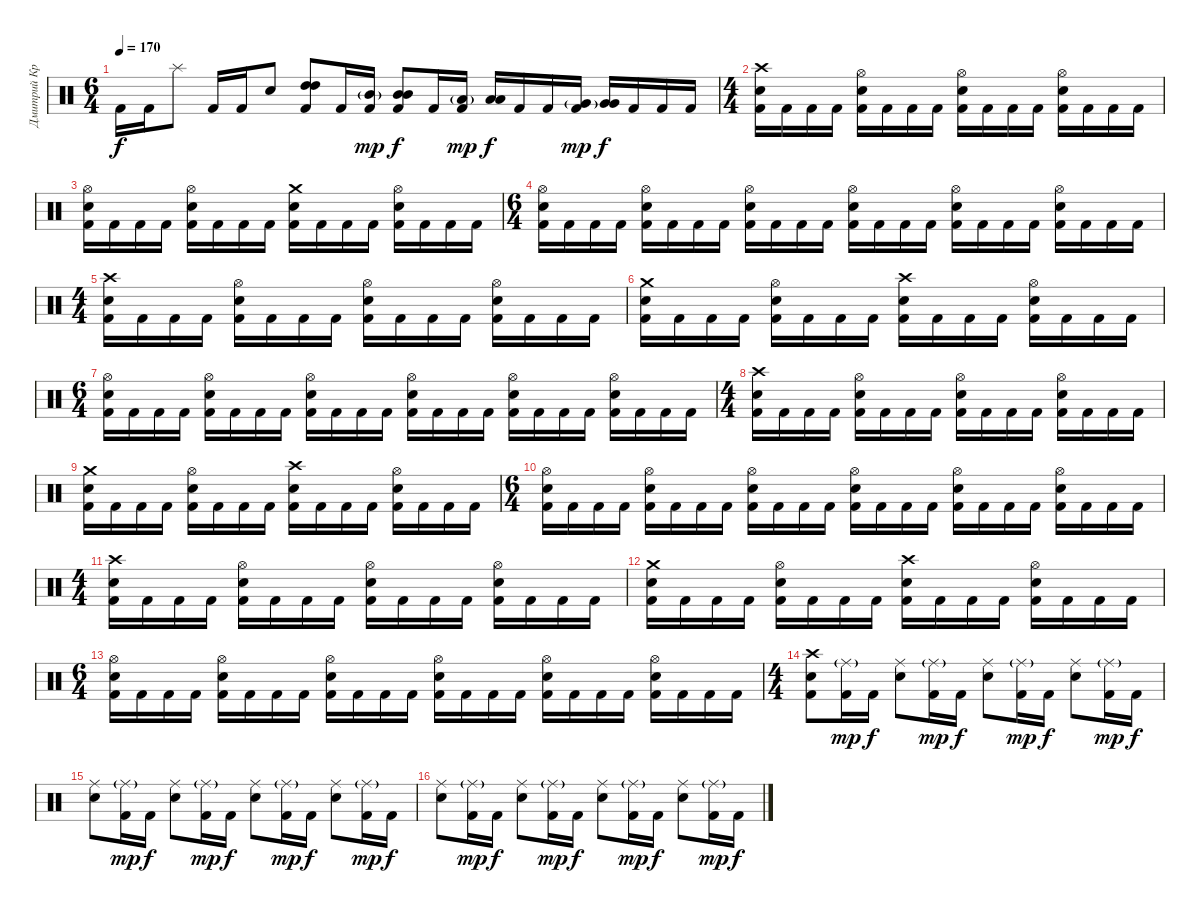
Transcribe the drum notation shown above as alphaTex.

\track ("Дмитрий Кривенков" "Дмитрий Кр") {instrument percussion}
\staff {score}
\articulation defaults
\ts (6 4)
\tempo 170
\clef neutral
\ks c "Kick (hit) 2".16{dy f} "Kick (hit) 2".16 "Splash (hit)".8 "Kick (hit) 2".16 "Kick (hit) 2".16 "Electric Snare (hit)".8
("High Tom (hit)" "High Tom (hit)" "Kick (hit) 2").8 "Kick (hit) 2".16 ("Mid Tom (hit)"{g} "Kick (hit) 2").16{dy mp} ("Mid Tom (hit)" "Mid Tom (hit)" "Kick (hit) 2").8{dy f} "Kick (hit) 2".16 ("Low Tom (hit)"{g} "Kick (hit) 2").16{dy mp} ("Low Tom (hit)" "Low Tom (hit)").16{dy f} "Kick (hit) 2".16 "Kick (hit) 2".16 ("Very Low Tom (hit)"{g} "Kick (hit) 2").16{dy mp} ("Very Low Tom (hit)" "Very Low Tom (hit)").16{dy f} "Kick (hit) 2".16 "Kick (hit) 2".16 "Kick (hit) 2".16 |
\ts (4 4)
("Crash high (hit)" "Electric Snare (hit)" "Kick (hit) 2").16 "Kick (hit) 2".16 "Kick (hit) 2".16 "Kick (hit) 2".16 ("Hi-Hat (open)" "Electric Snare (hit)" "Kick (hit) 2").16 "Kick (hit) 2".16 "Kick (hit) 2".16 "Kick (hit) 2".16 ("Hi-Hat (open)" "Electric Snare (hit)" "Kick (hit) 2").16 "Kick (hit) 2".16 "Kick (hit) 2".16 "Kick (hit) 2".16 ("Hi-Hat (open)" "Electric Snare (hit)" "Kick (hit) 2").16 "Kick (hit) 2".16 "Kick (hit) 2".16 "Kick (hit) 2".16 |
("Hi-Hat (open)" "Electric Snare (hit)" "Kick (hit) 2").16 "Kick (hit) 2".16 "Kick (hit) 2".16 "Kick (hit) 2".16 ("Hi-Hat (open)" "Electric Snare (hit)" "Kick (hit) 2").16 "Kick (hit) 2".16 "Kick (hit) 2".16 "Kick (hit) 2".16 ("Crash medium (hit)" "Electric Snare (hit)" "Kick (hit) 2").16 "Kick (hit) 2".16 "Kick (hit) 2".16 "Kick (hit) 2".16 ("Hi-Hat (open)" "Electric Snare (hit)" "Kick (hit) 2").16 "Kick (hit) 2".16 "Kick (hit) 2".16 "Kick (hit) 2".16 |
\ts (6 4)
("Hi-Hat (open)" "Electric Snare (hit)" "Kick (hit) 2").16 "Kick (hit) 2".16 "Kick (hit) 2".16 "Kick (hit) 2".16 ("Hi-Hat (open)" "Electric Snare (hit)" "Kick (hit) 2").16 "Kick (hit) 2".16 "Kick (hit) 2".16 "Kick (hit) 2".16 ("Hi-Hat (open)" "Electric Snare (hit)" "Kick (hit) 2").16 "Kick (hit) 2".16 "Kick (hit) 2".16 "Kick (hit) 2".16 ("Hi-Hat (open)" "Electric Snare (hit)" "Kick (hit) 2").16 "Kick (hit) 2".16 "Kick (hit) 2".16 "Kick (hit) 2".16 ("Hi-Hat (open)" "Electric Snare (hit)" "Kick (hit) 2").16 "Kick (hit) 2".16 "Kick (hit) 2".16 "Kick (hit) 2".16 ("Hi-Hat (open)" "Electric Snare (hit)" "Kick (hit) 2").16 "Kick (hit) 2".16 "Kick (hit) 2".16 "Kick (hit) 2".16 |
\ts (4 4)
("Crash high (hit)" "Electric Snare (hit)" "Kick (hit) 2").16 "Kick (hit) 2".16 "Kick (hit) 2".16 "Kick (hit) 2".16 ("Hi-Hat (open)" "Electric Snare (hit)" "Kick (hit) 2").16 "Kick (hit) 2".16 "Kick (hit) 2".16 "Kick (hit) 2".16 ("Hi-Hat (open)" "Electric Snare (hit)" "Kick (hit) 2").16 "Kick (hit) 2".16 "Kick (hit) 2".16 "Kick (hit) 2".16 ("Hi-Hat (open)" "Electric Snare (hit)" "Kick (hit) 2").16 "Kick (hit) 2".16 "Kick (hit) 2".16 "Kick (hit) 2".16 |
("Crash medium (hit)" "Electric Snare (hit)" "Kick (hit) 2").16 "Kick (hit) 2".16 "Kick (hit) 2".16 "Kick (hit) 2".16 ("Hi-Hat (open)" "Electric Snare (hit)" "Kick (hit) 2").16 "Kick (hit) 2".16 "Kick (hit) 2".16 "Kick (hit) 2".16 ("Crash high (hit)" "Electric Snare (hit)" "Kick (hit) 2").16 "Kick (hit) 2".16 "Kick (hit) 2".16 "Kick (hit) 2".16 ("Hi-Hat (open)" "Electric Snare (hit)" "Kick (hit) 2").16 "Kick (hit) 2".16 "Kick (hit) 2".16 "Kick (hit) 2".16 |
\ts (6 4)
("Hi-Hat (open)" "Electric Snare (hit)" "Kick (hit) 2").16 "Kick (hit) 2".16 "Kick (hit) 2".16 "Kick (hit) 2".16 ("Hi-Hat (open)" "Electric Snare (hit)" "Kick (hit) 2").16 "Kick (hit) 2".16 "Kick (hit) 2".16 "Kick (hit) 2".16 ("Hi-Hat (open)" "Electric Snare (hit)" "Kick (hit) 2").16 "Kick (hit) 2".16 "Kick (hit) 2".16 "Kick (hit) 2".16 ("Hi-Hat (open)" "Electric Snare (hit)" "Kick (hit) 2").16 "Kick (hit) 2".16 "Kick (hit) 2".16 "Kick (hit) 2".16 ("Hi-Hat (open)" "Electric Snare (hit)" "Kick (hit) 2").16 "Kick (hit) 2".16 "Kick (hit) 2".16 "Kick (hit) 2".16 ("Hi-Hat (open)" "Electric Snare (hit)" "Kick (hit) 2").16 "Kick (hit) 2".16 "Kick (hit) 2".16 "Kick (hit) 2".16 |
\ts (4 4)
("Crash high (hit)" "Electric Snare (hit)" "Kick (hit) 2").16 "Kick (hit) 2".16 "Kick (hit) 2".16 "Kick (hit) 2".16 ("Hi-Hat (open)" "Electric Snare (hit)" "Kick (hit) 2").16 "Kick (hit) 2".16 "Kick (hit) 2".16 "Kick (hit) 2".16 ("Hi-Hat (open)" "Electric Snare (hit)" "Kick (hit) 2").16 "Kick (hit) 2".16 "Kick (hit) 2".16 "Kick (hit) 2".16 ("Hi-Hat (open)" "Electric Snare (hit)" "Kick (hit) 2").16 "Kick (hit) 2".16 "Kick (hit) 2".16 "Kick (hit) 2".16 |
("Crash medium (hit)" "Electric Snare (hit)" "Kick (hit) 2").16 "Kick (hit) 2".16 "Kick (hit) 2".16 "Kick (hit) 2".16 ("Hi-Hat (open)" "Electric Snare (hit)" "Kick (hit) 2").16 "Kick (hit) 2".16 "Kick (hit) 2".16 "Kick (hit) 2".16 ("Crash high (hit)" "Electric Snare (hit)" "Kick (hit) 2").16 "Kick (hit) 2".16 "Kick (hit) 2".16 "Kick (hit) 2".16 ("Hi-Hat (open)" "Electric Snare (hit)" "Kick (hit) 2").16 "Kick (hit) 2".16 "Kick (hit) 2".16 "Kick (hit) 2".16 |
\ts (6 4)
("Hi-Hat (open)" "Electric Snare (hit)" "Kick (hit) 2").16 "Kick (hit) 2".16 "Kick (hit) 2".16 "Kick (hit) 2".16 ("Hi-Hat (open)" "Electric Snare (hit)" "Kick (hit) 2").16 "Kick (hit) 2".16 "Kick (hit) 2".16 "Kick (hit) 2".16 ("Hi-Hat (open)" "Electric Snare (hit)" "Kick (hit) 2").16 "Kick (hit) 2".16 "Kick (hit) 2".16 "Kick (hit) 2".16 ("Hi-Hat (open)" "Electric Snare (hit)" "Kick (hit) 2").16 "Kick (hit) 2".16 "Kick (hit) 2".16 "Kick (hit) 2".16 ("Hi-Hat (open)" "Electric Snare (hit)" "Kick (hit) 2").16 "Kick (hit) 2".16 "Kick (hit) 2".16 "Kick (hit) 2".16 ("Hi-Hat (open)" "Electric Snare (hit)" "Kick (hit) 2").16 "Kick (hit) 2".16 "Kick (hit) 2".16 "Kick (hit) 2".16 |
\ts (4 4)
("Crash high (hit)" "Electric Snare (hit)" "Kick (hit) 2").16 "Kick (hit) 2".16 "Kick (hit) 2".16 "Kick (hit) 2".16 ("Hi-Hat (open)" "Electric Snare (hit)" "Kick (hit) 2").16 "Kick (hit) 2".16 "Kick (hit) 2".16 "Kick (hit) 2".16 ("Hi-Hat (open)" "Electric Snare (hit)" "Kick (hit) 2").16 "Kick (hit) 2".16 "Kick (hit) 2".16 "Kick (hit) 2".16 ("Hi-Hat (open)" "Electric Snare (hit)" "Kick (hit) 2").16 "Kick (hit) 2".16 "Kick (hit) 2".16 "Kick (hit) 2".16 |
("Crash medium (hit)" "Electric Snare (hit)" "Kick (hit) 2").16 "Kick (hit) 2".16 "Kick (hit) 2".16 "Kick (hit) 2".16 ("Hi-Hat (open)" "Electric Snare (hit)" "Kick (hit) 2").16 "Kick (hit) 2".16 "Kick (hit) 2".16 "Kick (hit) 2".16 ("Crash high (hit)" "Electric Snare (hit)" "Kick (hit) 2").16 "Kick (hit) 2".16 "Kick (hit) 2".16 "Kick (hit) 2".16 ("Hi-Hat (open)" "Electric Snare (hit)" "Kick (hit) 2").16 "Kick (hit) 2".16 "Kick (hit) 2".16 "Kick (hit) 2".16 |
\ts (6 4)
("Hi-Hat (open)" "Electric Snare (hit)" "Kick (hit) 2").16 "Kick (hit) 2".16 "Kick (hit) 2".16 "Kick (hit) 2".16 ("Hi-Hat (open)" "Electric Snare (hit)" "Kick (hit) 2").16 "Kick (hit) 2".16 "Kick (hit) 2".16 "Kick (hit) 2".16 ("Hi-Hat (open)" "Electric Snare (hit)" "Kick (hit) 2").16 "Kick (hit) 2".16 "Kick (hit) 2".16 "Kick (hit) 2".16 ("Hi-Hat (open)" "Electric Snare (hit)" "Kick (hit) 2").16 "Kick (hit) 2".16 "Kick (hit) 2".16 "Kick (hit) 2".16 ("Hi-Hat (open)" "Electric Snare (hit)" "Kick (hit) 2").16 "Kick (hit) 2".16 "Kick (hit) 2".16 "Kick (hit) 2".16 ("Hi-Hat (open)" "Electric Snare (hit)" "Kick (hit) 2").16 "Kick (hit) 2".16 "Kick (hit) 2".16 "Kick (hit) 2".16 |
\ts (4 4)
("Crash high (hit)" "Electric Snare (hit)" "Kick (hit) 2").8 ("Ride (middle)"{g} "Kick (hit) 2").16{dy mp} "Kick (hit) 2".16{dy f} ("Ride (middle)" "Electric Snare (hit)").8 ("Ride (middle)"{g} "Kick (hit) 2").16{dy mp} "Kick (hit) 2".16{dy f} ("Ride (middle)" "Electric Snare (hit)").8 ("Ride (middle)"{g} "Kick (hit) 2").16{dy mp} "Kick (hit) 2".16{dy f} ("Ride (middle)" "Electric Snare (hit)").8 ("Ride (middle)"{g} "Kick (hit) 2").16{dy mp} "Kick (hit) 2".16{dy f} |
("Ride (middle)" "Electric Snare (hit)").8 ("Ride (middle)"{g} "Kick (hit) 2").16{dy mp} "Kick (hit) 2".16{dy f} ("Ride (middle)" "Electric Snare (hit)").8 ("Ride (middle)"{g} "Kick (hit) 2").16{dy mp} "Kick (hit) 2".16{dy f} ("Ride (middle)" "Electric Snare (hit)").8 ("Ride (middle)"{g} "Kick (hit) 2").16{dy mp} "Kick (hit) 2".16{dy f} ("Ride (middle)" "Electric Snare (hit)").8 ("Ride (middle)"{g} "Kick (hit) 2").16{dy mp} "Kick (hit) 2".16{dy f} |
("Ride (middle)" "Electric Snare (hit)").8 ("Ride (middle)"{g} "Kick (hit) 2").16{dy mp} "Kick (hit) 2".16{dy f} ("Ride (middle)" "Electric Snare (hit)").8 ("Ride (middle)"{g} "Kick (hit) 2").16{dy mp} "Kick (hit) 2".16{dy f} ("Ride (middle)" "Electric Snare (hit)").8 ("Ride (middle)"{g} "Kick (hit) 2").16{dy mp} "Kick (hit) 2".16{dy f} ("Ride (middle)" "Electric Snare (hit)").8 ("Ride (middle)"{g} "Kick (hit) 2").16{dy mp} "Kick (hit) 2".16{dy f}
